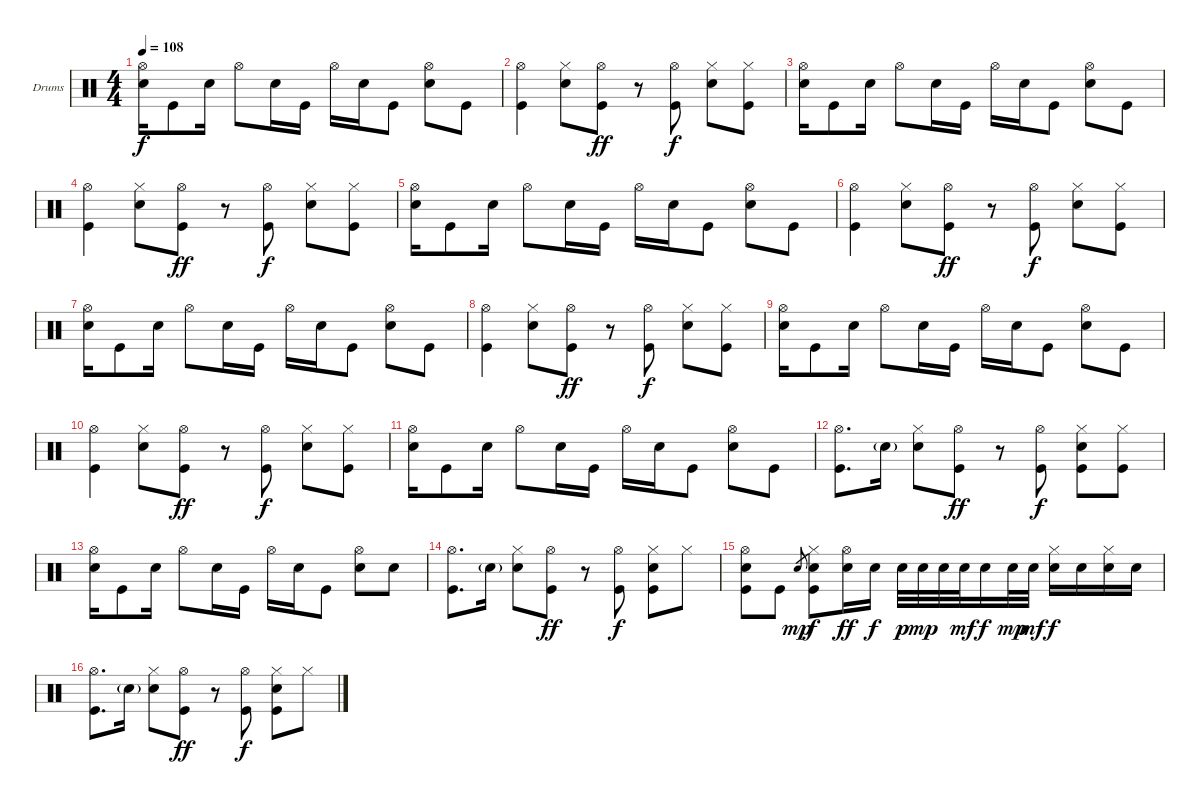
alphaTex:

\bracketExtendMode groupsimilarinstruments
\firstSystemTrackNameOrientation horizontal
\otherSystemsTrackNameOrientation horizontal
\track ("Drumkit" "Drums") {instrument percussion}
\staff {score}
\articulation defaults
\ts (4 4)
\tempo 108
\clef neutral
\ks c
("Hi-Hat (open)" "Snare (hit) 2").16{dy f} "Kick (hit)".8 "Snare (hit) 2".16 "Hi-Hat (open)".8 "Snare (hit) 2".16 "Kick (hit)".16 "Hi-Hat (open)".16 "Snare (hit) 2".16 "Kick (hit)".8 ("Hi-Hat (open)" "Snare (hit) 2").8 "Kick (hit)".8 |
("Hi-Hat (open)" "Kick (hit)").4 ("Hi-Hat (closed)" "Snare (hit) 2").8 ("Hi-Hat (open)" "Kick (hit)").8{dy ff} r.8 ("Hi-Hat (open)" "Kick (hit)").8{dy f} ("Hi-Hat (closed)" "Snare (hit) 2").8 ("Hi-Hat (closed)" "Kick (hit)").8 |
("Hi-Hat (open)" "Snare (hit) 2").16 "Kick (hit)".8 "Snare (hit) 2".16 "Hi-Hat (open)".8 "Snare (hit) 2".16 "Kick (hit)".16 "Hi-Hat (open)".16 "Snare (hit) 2".16 "Kick (hit)".8 ("Hi-Hat (open)" "Snare (hit) 2").8 "Kick (hit)".8 |
("Hi-Hat (open)" "Kick (hit)").4 ("Hi-Hat (closed)" "Snare (hit) 2").8 ("Hi-Hat (open)" "Kick (hit)").8{dy ff} r.8 ("Hi-Hat (open)" "Kick (hit)").8{dy f} ("Hi-Hat (closed)" "Snare (hit) 2").8 ("Hi-Hat (closed)" "Kick (hit)").8 |
("Hi-Hat (open)" "Snare (hit) 2").16 "Kick (hit)".8 "Snare (hit) 2".16 "Hi-Hat (open)".8 "Snare (hit) 2".16 "Kick (hit)".16 "Hi-Hat (open)".16 "Snare (hit) 2".16 "Kick (hit)".8 ("Hi-Hat (open)" "Snare (hit) 2").8 "Kick (hit)".8 |
("Hi-Hat (open)" "Kick (hit)").4 ("Hi-Hat (closed)" "Snare (hit) 2").8 ("Hi-Hat (open)" "Kick (hit)").8{dy ff} r.8 ("Hi-Hat (open)" "Kick (hit)").8{dy f} ("Hi-Hat (closed)" "Snare (hit) 2").8 ("Hi-Hat (closed)" "Kick (hit)").8 |
("Hi-Hat (open)" "Snare (hit) 2").16 "Kick (hit)".8 "Snare (hit) 2".16 "Hi-Hat (open)".8 "Snare (hit) 2".16 "Kick (hit)".16 "Hi-Hat (open)".16 "Snare (hit) 2".16 "Kick (hit)".8 ("Hi-Hat (open)" "Snare (hit) 2").8 "Kick (hit)".8 |
("Hi-Hat (open)" "Kick (hit)").4 ("Hi-Hat (closed)" "Snare (hit) 2").8 ("Hi-Hat (open)" "Kick (hit)").8{dy ff} r.8 ("Hi-Hat (open)" "Kick (hit)").8{dy f} ("Hi-Hat (closed)" "Snare (hit) 2").8 ("Hi-Hat (closed)" "Kick (hit)").8 |
("Hi-Hat (open)" "Snare (hit) 2").16 "Kick (hit)".8 "Snare (hit) 2".16 "Hi-Hat (open)".8 "Snare (hit) 2".16 "Kick (hit)".16 "Hi-Hat (open)".16 "Snare (hit) 2".16 "Kick (hit)".8 ("Hi-Hat (open)" "Snare (hit) 2").8 "Kick (hit)".8 |
("Hi-Hat (open)" "Kick (hit)").4 ("Hi-Hat (closed)" "Snare (hit) 2").8 ("Hi-Hat (open)" "Kick (hit)").8{dy ff} r.8 ("Hi-Hat (open)" "Kick (hit)").8{dy f} ("Hi-Hat (closed)" "Snare (hit) 2").8 ("Hi-Hat (closed)" "Kick (hit)").8 |
("Hi-Hat (open)" "Snare (hit) 2").16 "Kick (hit)".8 "Snare (hit) 2".16 "Hi-Hat (open)".8 "Snare (hit) 2".16 "Kick (hit)".16 "Hi-Hat (open)".16 "Snare (hit) 2".16 "Kick (hit)".8 ("Hi-Hat (open)" "Snare (hit) 2").8 "Kick (hit)".8 |
("Hi-Hat (open)" "Kick (hit)").8{d} "Snare (hit) 2"{g}.16 ("Hi-Hat (closed)" "Snare (hit) 2").8 ("Hi-Hat (open)" "Kick (hit)").8{dy ff} r.8 ("Hi-Hat (open)" "Kick (hit)").8{dy f} ("Hi-Hat (closed)" "Snare (hit) 2" "Kick (hit)").8 ("Hi-Hat (closed)" "Kick (hit)").8 |
("Hi-Hat (open)" "Snare (hit) 2").16 "Kick (hit)".8 "Snare (hit) 2".16 "Hi-Hat (open)".8 "Snare (hit) 2".16 "Kick (hit)".16 "Hi-Hat (open)".16 "Snare (hit) 2".16 "Kick (hit)".8 ("Hi-Hat (open)" "Snare (hit) 2").8 "Snare (hit) 2".8 |
("Hi-Hat (open)" "Kick (hit)").8{d} "Snare (hit) 2"{g}.16 ("Hi-Hat (closed)" "Snare (hit) 2").8 ("Hi-Hat (open)" "Kick (hit)").8{dy ff} r.8 ("Hi-Hat (open)" "Kick (hit)").8{dy f} ("Hi-Hat (closed)" "Snare (hit) 2" "Kick (hit)").8 "Hi-Hat (closed)".8 |
("Hi-Hat (open)" "Snare (hit) 2" "Kick (hit)").8 "Kick (hit)".8 "Snare (hit) 2".8{gr dy mp} ("Hi-Hat (closed)" "Snare (hit) 2" "Kick (hit)").8{dy f} ("Hi-Hat (open)" "Snare (hit) 2").16{dy ff} "Snare (hit) 2".16{dy f} "Snare (hit) 2".32{dy p} "Snare (hit) 2".32{dy mp} "Snare (hit) 2".32 "Snare (hit) 2".32{dy mf} "Snare (hit) 2".16{dy f} "Snare (hit) 2".32{dy mp} "Snare (hit) 2".32{dy mf} ("Hi-Hat (closed)" "Snare (hit) 2").16{dy f} "Snare (hit) 2".16 ("Hi-Hat (closed)" "Snare (hit) 2").16 "Snare (hit) 2".16 |
("Hi-Hat (open)" "Kick (hit)").8{d} "Snare (hit) 2"{g}.16 ("Hi-Hat (closed)" "Snare (hit) 2").8 ("Hi-Hat (open)" "Kick (hit)").8{dy ff} r.8 ("Hi-Hat (open)" "Kick (hit)").8{dy f} ("Hi-Hat (closed)" "Snare (hit) 2" "Kick (hit)").8 "Hi-Hat (closed)".8
